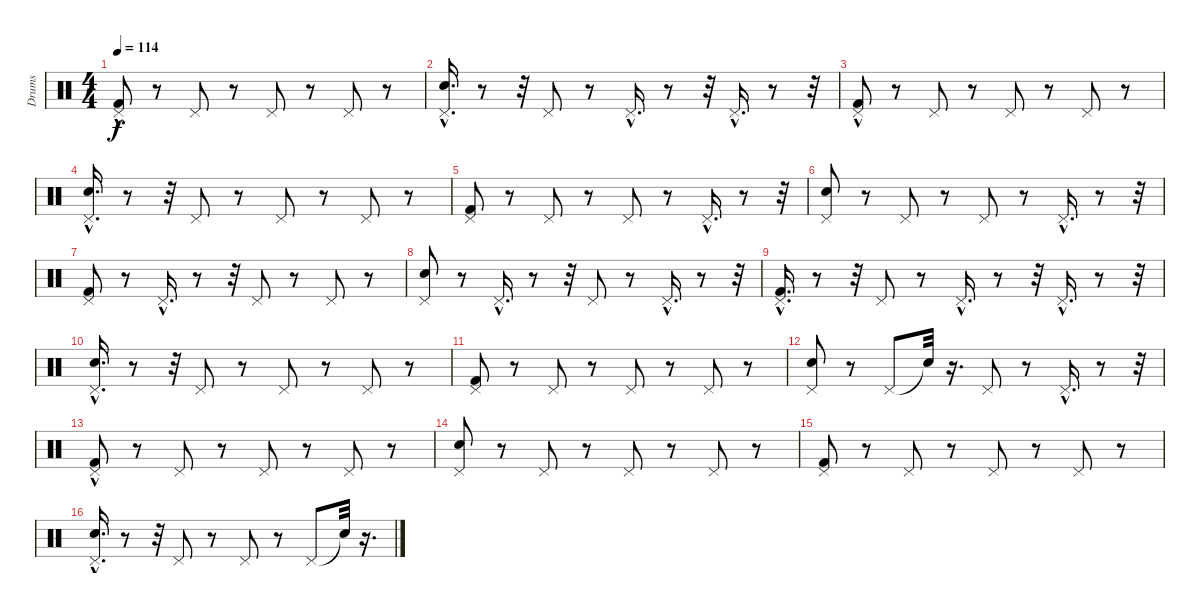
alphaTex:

\track ("Drums" "Drums") {instrument percussion}
\staff {score}
\articulation defaults
\ts (4 4)
\tempo 114
\clef neutral
\ks c
("Pedal Hi-Hat (hit)"{hac} "Kick (hit) 2").8{dy f} r.8 "Pedal Hi-Hat (hit)".8 r.8 "Pedal Hi-Hat (hit)".8 r.8 "Pedal Hi-Hat (hit)".8 r.8 |
("Pedal Hi-Hat (hit)"{hac} "Snare (hit) 2"{hac}).16{d} r.8 r.32 "Pedal Hi-Hat (hit)".8 r.8 "Pedal Hi-Hat (hit)"{hac}.16{d} r.8 r.32 "Pedal Hi-Hat (hit)"{hac}.16{d} r.8 r.32 |
("Pedal Hi-Hat (hit)"{hac} "Kick (hit) 2").8 r.8 "Pedal Hi-Hat (hit)".8 r.8 "Pedal Hi-Hat (hit)".8 r.8 "Pedal Hi-Hat (hit)".8 r.8 |
("Pedal Hi-Hat (hit)"{hac} "Snare (hit) 2"{hac}).16{d} r.8 r.32 "Pedal Hi-Hat (hit)".8 r.8 "Pedal Hi-Hat (hit)".8 r.8 "Pedal Hi-Hat (hit)".8 r.8 |
("Pedal Hi-Hat (hit)" "Kick (hit) 2").8 r.8 "Pedal Hi-Hat (hit)".8 r.8 "Pedal Hi-Hat (hit)".8 r.8 "Pedal Hi-Hat (hit)"{hac}.16{d} r.8 r.32 |
("Pedal Hi-Hat (hit)" "Snare (hit) 2").8 r.8 "Pedal Hi-Hat (hit)".8 r.8 "Pedal Hi-Hat (hit)".8 r.8 "Pedal Hi-Hat (hit)"{hac}.16{d} r.8 r.32 |
("Pedal Hi-Hat (hit)" "Kick (hit) 2").8 r.8 "Pedal Hi-Hat (hit)"{hac}.16{d} r.8 r.32 "Pedal Hi-Hat (hit)".8 r.8 "Pedal Hi-Hat (hit)".8 r.8 |
("Pedal Hi-Hat (hit)" "Snare (hit) 2").8 r.8 "Pedal Hi-Hat (hit)"{hac}.16{d} r.8 r.32 "Pedal Hi-Hat (hit)".8 r.8 "Pedal Hi-Hat (hit)"{hac}.16{d} r.8 r.32 |
("Pedal Hi-Hat (hit)"{hac} "Kick (hit) 2"{hac}).16{d} r.8 r.32 "Pedal Hi-Hat (hit)".8 r.8 "Pedal Hi-Hat (hit)"{hac}.16{d} r.8 r.32 "Pedal Hi-Hat (hit)"{hac}.16{d} r.8 r.32 |
("Pedal Hi-Hat (hit)"{hac} "Snare (hit) 2"{hac}).16{d} r.8 r.32 "Pedal Hi-Hat (hit)".8 r.8 "Pedal Hi-Hat (hit)".8 r.8 "Pedal Hi-Hat (hit)".8 r.8 |
("Pedal Hi-Hat (hit)" "Kick (hit) 2").8 r.8 "Pedal Hi-Hat (hit)".8 r.8 "Pedal Hi-Hat (hit)".8 r.8 "Pedal Hi-Hat (hit)".8 r.8 |
("Pedal Hi-Hat (hit)" "Snare (hit) 2").8 r.8 "Pedal Hi-Hat (hit)".8 "Snare (hit)"{t}.32 r.16{d} "Pedal Hi-Hat (hit)".8 r.8 "Pedal Hi-Hat (hit)"{hac}.16{d} r.8 r.32 |
("Pedal Hi-Hat (hit)"{hac} "Kick (hit) 2").8 r.8 "Pedal Hi-Hat (hit)".8 r.8 "Pedal Hi-Hat (hit)".8 r.8 "Pedal Hi-Hat (hit)".8 r.8 |
("Snare (hit) 2" "Pedal Hi-Hat (hit)").8 r.8 "Pedal Hi-Hat (hit)".8 r.8 "Pedal Hi-Hat (hit)".8 r.8 "Pedal Hi-Hat (hit)".8 r.8 |
("Kick (hit) 2" "Pedal Hi-Hat (hit)").8 r.8 "Pedal Hi-Hat (hit)".8 r.8 "Pedal Hi-Hat (hit)".8 r.8 "Pedal Hi-Hat (hit)".8 r.8 |
("Pedal Hi-Hat (hit)"{hac} "Snare (hit) 2"{hac}).16{d} r.8 r.32 "Pedal Hi-Hat (hit)".8 r.8 "Pedal Hi-Hat (hit)".8 r.8 "Pedal Hi-Hat (hit)".8 "Snare (hit)"{t}.32 r.16{d}
